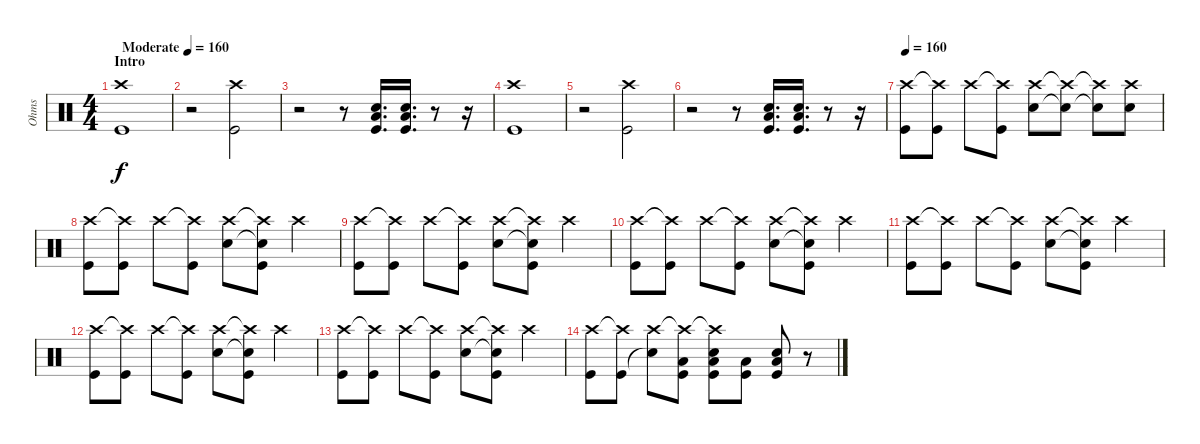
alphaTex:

\track ("Ohms" "Ohms") {instrument percussion}
\staff {score}
\articulation defaults
\ts (4 4)
\section ("" "Intro")
\tempo (160 "Moderate")
\tempo 150
\tempo (160 "Moderate")
\clef neutral
\ks c
("Crash high (hit)" "Kick (hit)").1{dy f} |
r.2 ("Crash high (hit)" "Kick (hit)").2 |
r.2 r.8 ("Snare (hit) 2" "Low Floor Tom (hit)" "Kick (hit)").16{d} ("Snare (hit) 2" "Low Floor Tom (hit)" "Kick (hit)").16{d} r.8 r.16 |
("Crash high (hit)" "Kick (hit)").1 |
r.2 ("Crash high (hit)" "Kick (hit)").2 |
r.2 r.8 ("Snare (hit) 2" "Low Floor Tom (hit)" "Kick (hit)").16{d} ("Snare (hit) 2" "Low Floor Tom (hit)" "Kick (hit)").16{d} r.8 r.16 |
\tempo 160
("Crash high (hit)" "Kick (hit)").8 ("Crash high (hit)"{t} "Kick (hit)").8 "Crash high (hit)".8 ("Crash high (hit)"{t} "Kick (hit)").8 ("Crash high (hit)" "Snare (hit) 2").8 ("Crash high (hit)"{t} "Snare (hit)"{t}).8 ("Crash high (hit)"{t} "Snare (hit) 2"{t}).8 ("Crash high (hit)" "Snare (hit) 2").8 |
("Crash high (hit)" "Kick (hit)").8 ("Crash high (hit)"{t} "Kick (hit)").8 "Crash high (hit)".8 ("Crash high (hit)"{t} "Kick (hit)").8 ("Crash high (hit)" "Snare (hit) 2").8 ("Crash high (hit)"{t} "Snare (hit)"{t} "Kick (hit)").8 "Crash high (hit)".4 |
("Crash high (hit)" "Kick (hit)").8 ("Crash high (hit)"{t} "Kick (hit)").8 "Crash high (hit)".8 ("Crash high (hit)"{t} "Kick (hit)").8 ("Crash high (hit)" "Snare (hit) 2").8 ("Crash high (hit)"{t} "Snare (hit)"{t} "Kick (hit)").8 "Crash high (hit)".4 |
("Crash high (hit)" "Kick (hit)").8 ("Crash high (hit)"{t} "Kick (hit)").8 "Crash high (hit)".8 ("Crash high (hit)"{t} "Kick (hit)").8 ("Crash high (hit)" "Snare (hit) 2").8 ("Crash high (hit)"{t} "Snare (hit)"{t} "Kick (hit)").8 "Crash high (hit)".4 |
("Crash high (hit)" "Kick (hit)").8 ("Crash high (hit)"{t} "Kick (hit)").8 "Crash high (hit)".8 ("Crash high (hit)"{t} "Kick (hit)").8 ("Crash high (hit)" "Snare (hit) 2").8 ("Crash high (hit)"{t} "Snare (hit)"{t} "Kick (hit)").8 "Crash high (hit)".4 |
("Crash high (hit)" "Kick (hit)").8 ("Crash high (hit)"{t} "Kick (hit)").8 "Crash high (hit)".8 ("Crash high (hit)"{t} "Kick (hit)").8 ("Crash high (hit)" "Snare (hit) 2").8 ("Crash high (hit)"{t} "Snare (hit)"{t} "Kick (hit)").8 "Crash high (hit)".4 |
("Crash high (hit)" "Kick (hit)").8 ("Crash high (hit)"{t} "Kick (hit)").8 "Crash high (hit)".8 ("Crash high (hit)"{t} "Kick (hit)").8 ("Crash high (hit)" "Snare (hit) 2").8 ("Crash high (hit)"{t} "Snare (hit)"{t} "Kick (hit)").8 "Crash high (hit)".4 |
("Crash high (hit)" "Kick (hit)").8 ("Crash high (hit)"{t} "Kick (hit)").8 ("Crash high (hit)" "Snare (hit)"{t}).8 ("Crash high (hit)"{t} "Low Floor Tom (hit)" "Kick (hit)").8 ("Crash high (hit)"{t} "Snare (hit) 2" "Low Floor Tom (hit)" "Kick (hit)").8 ("Low Floor Tom (hit)" "Kick (hit)").8 ("Snare (hit) 2" "Low Floor Tom (hit)" "Kick (hit)").8 r.8
